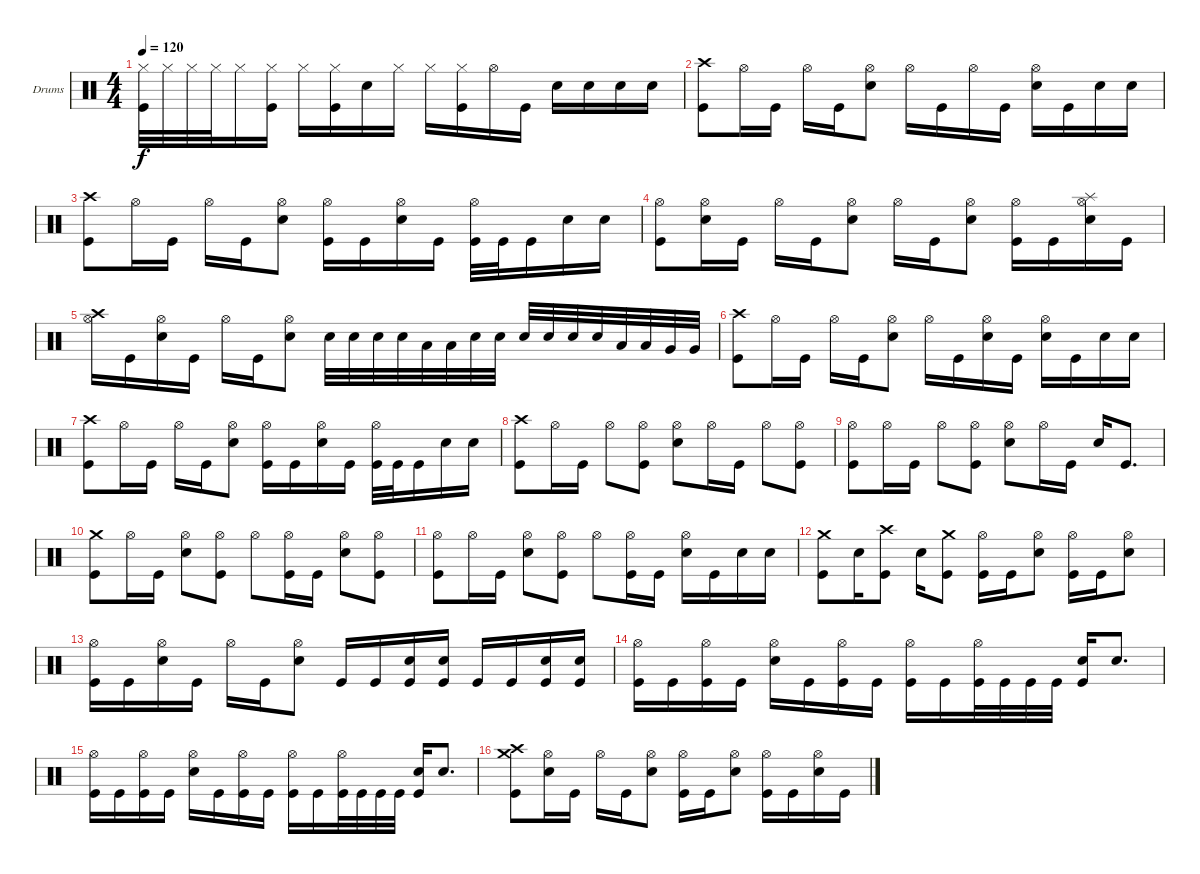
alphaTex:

\bracketExtendMode groupsimilarinstruments
\firstSystemTrackNameOrientation horizontal
\otherSystemsTrackNameOrientation horizontal
\track ("Drumkit" "Drums") {instrument percussion}
\staff {score}
\articulation defaults
\ts (4 4)
\tempo 120
\clef neutral
\scale
0.333333
\ks c
("Hi-Hat (closed)" "Kick (hit)").32{dy f} "Hi-Hat (closed)".32 "Hi-Hat (closed)".32 "Hi-Hat (closed)".32 "Hi-Hat (closed)".16 ("Hi-Hat (closed)" "Kick (hit)").16 "Hi-Hat (closed)".16 ("Hi-Hat (closed)" "Kick (hit)").16 "Snare (hit) 2".16 "Hi-Hat (closed)".16 "Hi-Hat (closed)".16 ("Hi-Hat (closed)" "Kick (hit)").16 "Hi-Hat (open)".16 "Kick (hit)".16 "Snare (hit) 2".16 "Snare (hit) 2".16 "Snare (hit) 2".16 "Snare (hit) 2".16 |
\scale
0.333333 ("Crash high (hit)" "Kick (hit)").8 "Hi-Hat (open)".16 "Kick (hit)".16 "Hi-Hat (open)".16 "Kick (hit)".16 ("Hi-Hat (open)" "Snare (hit) 2").8 "Hi-Hat (open)".16 "Kick (hit)".16 "Hi-Hat (open)".16 "Kick (hit)".16 ("Hi-Hat (open)" "Snare (hit) 2").16 "Kick (hit)".16 "Snare (hit) 2".16 "Snare (hit) 2".16 |
\scale
0.333333 ("Crash high (hit)" "Kick (hit)").8 "Hi-Hat (open)".16 "Kick (hit)".16 "Hi-Hat (open)".16 "Kick (hit)".16 ("Hi-Hat (open)" "Snare (hit) 2").8 ("Hi-Hat (open)" "Kick (hit)").16 "Kick (hit)".16 ("Hi-Hat (open)" "Snare (hit) 2").16 "Kick (hit)".16 ("Hi-Hat (open)" "Kick (hit)").32 "Kick (hit)".32 "Kick (hit)".16 "Snare (hit) 2".16 "Snare (hit) 2".16 |
\scale
0.333333 ("Hi-Hat (open)" "Kick (hit)").8 ("Hi-Hat (open)" "Snare (hit) 2").16 "Kick (hit)".16 "Hi-Hat (open)".16 "Kick (hit)".16 ("Hi-Hat (open)" "Snare (hit) 2").8 "Hi-Hat (open)".16 "Kick (hit)".16 ("Hi-Hat (open)" "Snare (hit) 2").8 ("Hi-Hat (open)" "Kick (hit)").16 "Kick (hit)".16 ("Splash (hit)" "Hi-Hat (open)" "Snare (hit) 2").16 "Kick (hit)".16 |
\scale
0.333333 ("Crash high (hit)" "Hi-Hat (open)").16 "Kick (hit)".16 ("Hi-Hat (open)" "Snare (hit) 2").16 "Kick (hit)".16 "Hi-Hat (open)".16 "Kick (hit)".16 ("Hi-Hat (open)" "Snare (hit) 2").8 "Snare (hit) 2".32 "Snare (hit) 2".32 "Snare (hit) 2".32 "Snare (hit) 2".32 "Low Tom (hit)".32 "Low Tom (hit)".32 "Snare (hit) 2".32 "Snare (hit) 2".32 "Snare (hit) 2".32 "Snare (hit) 2".32 "Snare (hit) 2".32 "Snare (hit) 2".32 "Low Tom (hit)".32 "Low Tom (hit)".32 "Very Low Tom (hit)".32 "Very Low Tom (hit)".32 |
\scale
0.333333 ("Crash high (hit)" "Kick (hit)").8 "Hi-Hat (open)".16 "Kick (hit)".16 "Hi-Hat (open)".16 "Kick (hit)".16 ("Hi-Hat (open)" "Snare (hit) 2").8 "Hi-Hat (open)".16 "Kick (hit)".16 ("Hi-Hat (open)" "Snare (hit) 2").16 "Kick (hit)".16 ("Hi-Hat (open)" "Snare (hit) 2").16 "Kick (hit)".16 "Snare (hit) 2".16 "Snare (hit) 2".16 |
\scale
0.333333 ("Crash high (hit)" "Kick (hit)").8 "Hi-Hat (open)".16 "Kick (hit)".16 "Hi-Hat (open)".16 "Kick (hit)".16 ("Hi-Hat (open)" "Snare (hit) 2").8 ("Hi-Hat (open)" "Kick (hit)").16 "Kick (hit)".16 ("Hi-Hat (open)" "Snare (hit) 2").16 "Kick (hit)".16 ("Hi-Hat (open)" "Kick (hit)").32 "Kick (hit)".32 "Kick (hit)".16 "Snare (hit) 2".16 "Snare (hit) 2".16 |
\scale
0.333333 ("Crash high (hit)" "Kick (hit)").8 "Hi-Hat (open)".16 "Kick (hit)".16 "Hi-Hat (open)".8 ("Hi-Hat (open)" "Kick (hit)").8 ("Hi-Hat (open)" "Snare (hit) 2").8 "Hi-Hat (open)".16 "Kick (hit)".16 "Hi-Hat (open)".8 ("Hi-Hat (open)" "Kick (hit)").8 |
\scale
0.333333 ("Hi-Hat (open)" "Kick (hit)").8 "Hi-Hat (open)".16 "Kick (hit)".16 "Hi-Hat (open)".8 ("Hi-Hat (open)" "Kick (hit)").8 ("Hi-Hat (open)" "Snare (hit) 2").8 "Hi-Hat (open)".16 "Kick (hit)".16 "Snare (hit) 2".16 "Kick (hit)".8{d} |
\scale
0.333333 ("Crash medium (hit)" "Kick (hit)").8 "Hi-Hat (open)".16 "Kick (hit)".16 ("Hi-Hat (open)" "Snare (hit) 2").8 ("Hi-Hat (open)" "Kick (hit)").8 "Hi-Hat (open)".8 ("Hi-Hat (open)" "Kick (hit)").16 "Kick (hit)".16 ("Hi-Hat (open)" "Snare (hit) 2").8 ("Hi-Hat (open)" "Kick (hit)").8 |
\scale
0.333333 ("Hi-Hat (open)" "Kick (hit)").8 "Hi-Hat (open)".16 "Kick (hit)".16 ("Hi-Hat (open)" "Snare (hit) 2").8 ("Hi-Hat (open)" "Kick (hit)").8 "Hi-Hat (open)".8 ("Hi-Hat (open)" "Kick (hit)").16 "Kick (hit)".16 ("Hi-Hat (open)" "Snare (hit) 2").16 "Kick (hit)".16 "Snare (hit) 2".16 "Snare (hit) 2".16 |
\scale
0.333333 ("Crash medium (hit)" "Kick (hit)").8 "Snare (hit) 2".16 ("Crash high (hit)" "Kick (hit)").8 "Snare (hit) 2".16 ("Crash medium (hit)" "Kick (hit)").8 ("Hi-Hat (open)" "Kick (hit)").16 "Kick (hit)".16 ("Hi-Hat (open)" "Snare (hit) 2").8 ("Hi-Hat (open)" "Kick (hit)").16 "Kick (hit)".16 ("Hi-Hat (open)" "Snare (hit) 2").8 |
\scale
0.333333 ("Hi-Hat (open)" "Kick (hit)").16 "Kick (hit)".16 ("Hi-Hat (open)" "Snare (hit) 2").16 "Kick (hit)".16 "Hi-Hat (open)".16 "Kick (hit)".16 ("Hi-Hat (open)" "Snare (hit) 2").8 "Kick (hit)".16 "Kick (hit)".16 ("Snare (hit) 2" "Kick (hit)").16 ("Snare (hit) 2" "Kick (hit)").16 "Kick (hit)".16 "Kick (hit)".16 ("Snare (hit) 2" "Kick (hit)").16 ("Snare (hit) 2" "Kick (hit)").16 |
\scale
0.333333 ("Hi-Hat (open)" "Kick (hit)").16 "Kick (hit)".16 ("Hi-Hat (open)" "Kick (hit)").16 "Kick (hit)".16 ("Hi-Hat (open)" "Snare (hit) 2").16 "Kick (hit)".16 ("Hi-Hat (open)" "Kick (hit)").16 "Kick (hit)".16 ("Hi-Hat (open)" "Kick (hit)").16 "Kick (hit)".16 ("Hi-Hat (open)" "Kick (hit)").32 "Kick (hit)".32 "Kick (hit)".32 "Kick (hit)".32 ("Snare (hit) 2" "Kick (hit)").16 "Snare (hit) 2".8{d} |
\scale
0.333333 ("Hi-Hat (open)" "Kick (hit)").16 "Kick (hit)".16 ("Hi-Hat (open)" "Kick (hit)").16 "Kick (hit)".16 ("Hi-Hat (open)" "Snare (hit) 2").16 "Kick (hit)".16 ("Hi-Hat (open)" "Kick (hit)").16 "Kick (hit)".16 ("Hi-Hat (open)" "Kick (hit)").16 "Kick (hit)".16 ("Hi-Hat (open)" "Kick (hit)").32 "Kick (hit)".32 "Kick (hit)".32 "Kick (hit)".32 ("Snare (hit) 2" "Kick (hit)").16 "Snare (hit) 2".8{d} |
\scale
0.333333 ("Crash medium (hit)" "Crash high (hit)" "Kick (hit)").8 ("Hi-Hat (open)" "Snare (hit) 2").16 "Kick (hit)".16 "Hi-Hat (open)".16 "Kick (hit)".16 ("Hi-Hat (open)" "Snare (hit) 2").8 ("Hi-Hat (open)" "Kick (hit)").16 "Kick (hit)".16 ("Hi-Hat (open)" "Snare (hit) 2").8 ("Hi-Hat (open)" "Kick (hit)").16 "Kick (hit)".16 ("Hi-Hat (open)" "Snare (hit) 2").16 "Kick (hit)".16
